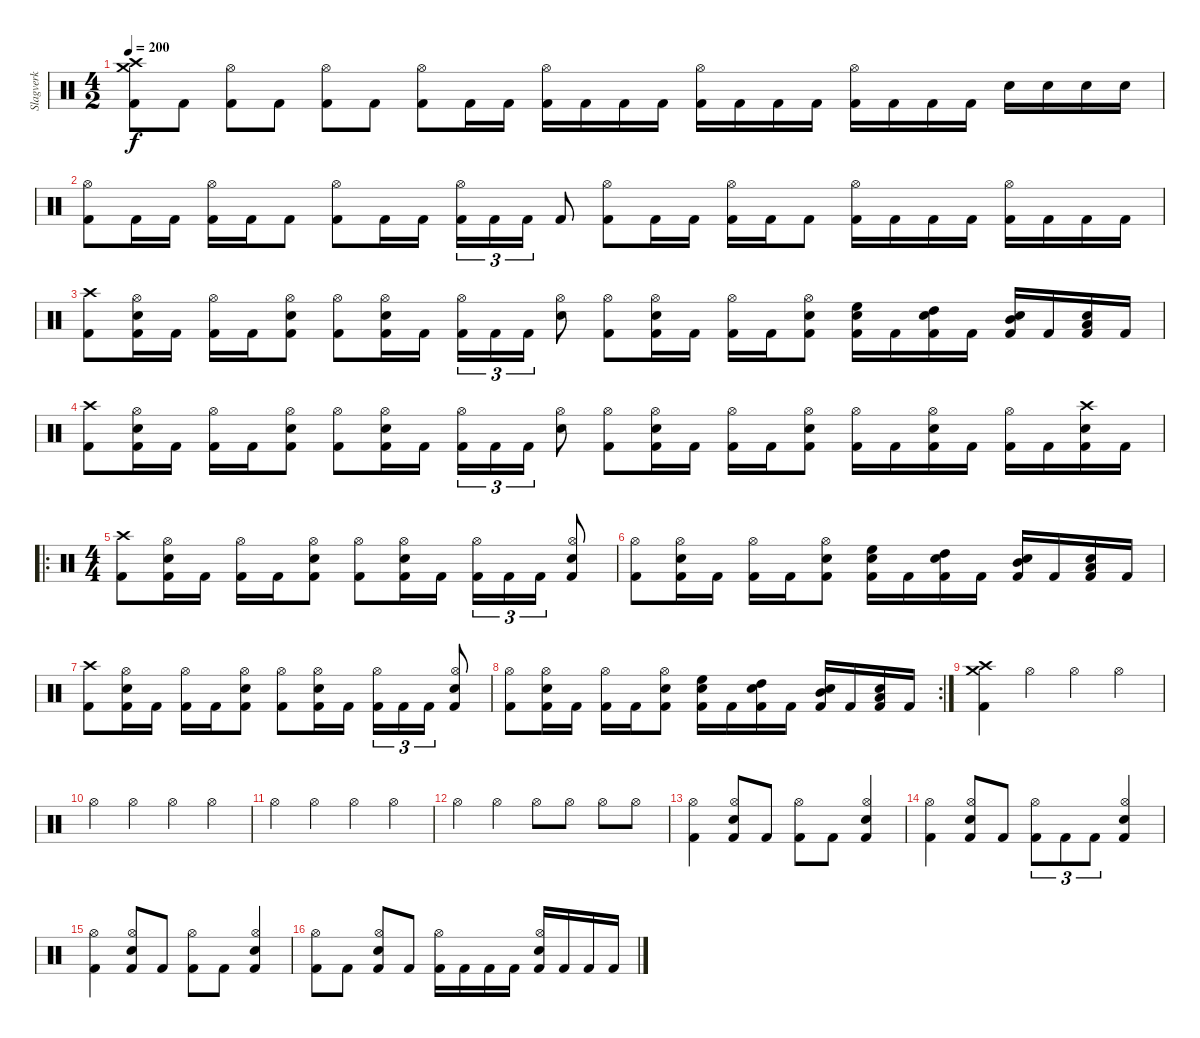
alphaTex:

\track ("Slagverk" "Slagverk") {instrument percussion}
\staff {score}
\articulation defaults
\ts (4 2)
\tempo 200
\clef neutral
\ks c
("Kick (hit) 2" "Crash high (hit)" "Crash medium (hit)").8{dy f} "Kick (hit) 2".8 ("Kick (hit) 2" "Hi-Hat (open)").8 "Kick (hit) 2".8 ("Kick (hit) 2" "Hi-Hat (open)").8 "Kick (hit) 2".8 ("Kick (hit) 2" "Hi-Hat (open)").8 "Kick (hit) 2".16 "Kick (hit) 2".16 ("Kick (hit) 2" "Hi-Hat (open)").16 "Kick (hit) 2".16 "Kick (hit) 2".16 "Kick (hit) 2".16 ("Kick (hit) 2" "Hi-Hat (open)").16 "Kick (hit) 2".16 "Kick (hit) 2".16 "Kick (hit) 2".16 ("Kick (hit) 2" "Hi-Hat (open)").16 "Kick (hit) 2".16 "Kick (hit) 2".16 "Kick (hit) 2".16 "Electric Snare (hit)".16 "Electric Snare (hit)".16 "Electric Snare (hit)".16 "Electric Snare (hit)".16 |
("Kick (hit) 2" "Hi-Hat (open)").8 "Kick (hit) 2".16 "Kick (hit) 2".16 ("Kick (hit) 2" "Hi-Hat (open)").16 "Kick (hit) 2".16 "Kick (hit) 2".8 ("Kick (hit) 2" "Hi-Hat (open)").8 "Kick (hit) 2".16 "Kick (hit) 2".16 ("Kick (hit) 2" "Hi-Hat (open)").16{tu (3 2)} "Kick (hit) 2".16{tu (3 2)} "Kick (hit) 2".16{tu (3 2)} "Kick (hit) 2".8 ("Kick (hit) 2" "Hi-Hat (open)").8 "Kick (hit) 2".16 "Kick (hit) 2".16 ("Kick (hit) 2" "Hi-Hat (open)").16 "Kick (hit) 2".16 "Kick (hit) 2".8 ("Kick (hit) 2" "Hi-Hat (open)").16 "Kick (hit) 2".16 "Kick (hit) 2".16 "Kick (hit) 2".16 ("Kick (hit) 2" "Hi-Hat (open)").16 "Kick (hit) 2".16 "Kick (hit) 2".16 "Kick (hit) 2".16 |
("Kick (hit) 2" "Crash high (hit)").8 ("Kick (hit) 2" "Electric Snare (hit)" "Hi-Hat (open)").16 "Kick (hit) 2".16 ("Kick (hit) 2" "Hi-Hat (open)").16 "Kick (hit) 2".16 ("Kick (hit) 2" "Electric Snare (hit)" "Hi-Hat (open)").8 ("Kick (hit) 2" "Hi-Hat (open)").8 ("Kick (hit) 2" "Electric Snare (hit)" "Hi-Hat (open)").16 "Kick (hit) 2".16 ("Kick (hit) 2" "Hi-Hat (open)").16{tu (3 2)} "Kick (hit) 2".16{tu (3 2)} "Kick (hit) 2".16{tu (3 2)} ("Electric Snare (hit)" "Hi-Hat (open)").8 ("Kick (hit) 2" "Hi-Hat (open)").8 ("Kick (hit) 2" "Electric Snare (hit)" "Hi-Hat (open)").16 "Kick (hit) 2".16 ("Kick (hit) 2" "Hi-Hat (open)").16 "Kick (hit) 2".16 ("Kick (hit) 2" "Electric Snare (hit)" "Hi-Hat (open)").8 ("Kick (hit) 2" "Electric Snare (hit)" "High Floor Tom (hit)").16 "Kick (hit) 2".16 ("Kick (hit) 2" "Electric Snare (hit)" "High Tom (hit)").16 "Kick (hit) 2".16 ("Kick (hit) 2" "Electric Snare (hit)" "Mid Tom (hit)").16 "Kick (hit) 2".16 ("Kick (hit) 2" "Electric Snare (hit)" "Low Tom (hit)").16 "Kick (hit) 2".16 |
("Kick (hit) 2" "Crash high (hit)").8 ("Kick (hit) 2" "Electric Snare (hit)" "Hi-Hat (open)").16 "Kick (hit) 2".16 ("Kick (hit) 2" "Hi-Hat (open)").16 "Kick (hit) 2".16 ("Kick (hit) 2" "Electric Snare (hit)" "Hi-Hat (open)").8 ("Kick (hit) 2" "Hi-Hat (open)").8 ("Kick (hit) 2" "Electric Snare (hit)" "Hi-Hat (open)").16 "Kick (hit) 2".16 ("Kick (hit) 2" "Hi-Hat (open)").16{tu (3 2)} "Kick (hit) 2".16{tu (3 2)} "Kick (hit) 2".16{tu (3 2)} ("Electric Snare (hit)" "Hi-Hat (open)").8 ("Kick (hit) 2" "Hi-Hat (open)").8 ("Kick (hit) 2" "Electric Snare (hit)" "Hi-Hat (open)").16 "Kick (hit) 2".16 ("Kick (hit) 2" "Hi-Hat (open)").16 "Kick (hit) 2".16 ("Kick (hit) 2" "Electric Snare (hit)" "Hi-Hat (open)").8 ("Kick (hit) 2" "Hi-Hat (open)").16 "Kick (hit) 2".16 ("Kick (hit) 2" "Electric Snare (hit)" "Hi-Hat (open)").16 "Kick (hit) 2".16 ("Kick (hit) 2" "Hi-Hat (open)").16 "Kick (hit) 2".16 ("Kick (hit) 2" "Electric Snare (hit)" "Crash high (hit)").16 "Kick (hit) 2".16 |
\ro
\ts (4 4)
("Kick (hit) 2" "Crash high (hit)").8 ("Kick (hit) 2" "Electric Snare (hit)" "Hi-Hat (open)").16 "Kick (hit) 2".16 ("Kick (hit) 2" "Hi-Hat (open)").16 "Kick (hit) 2".16 ("Kick (hit) 2" "Electric Snare (hit)" "Hi-Hat (open)").8 ("Kick (hit) 2" "Hi-Hat (open)").8 ("Kick (hit) 2" "Electric Snare (hit)" "Hi-Hat (open)").16 "Kick (hit) 2".16 ("Kick (hit) 2" "Hi-Hat (open)").16{tu (3 2)} "Kick (hit) 2".16{tu (3 2)} "Kick (hit) 2".16{tu (3 2)} ("Kick (hit) 2" "Electric Snare (hit)" "Hi-Hat (open)").8 |
("Kick (hit) 2" "Hi-Hat (open)").8 ("Kick (hit) 2" "Electric Snare (hit)" "Hi-Hat (open)").16 "Kick (hit) 2".16 ("Kick (hit) 2" "Hi-Hat (open)").16 "Kick (hit) 2".16 ("Kick (hit) 2" "Electric Snare (hit)" "Hi-Hat (open)").8 ("Kick (hit) 2" "Electric Snare (hit)" "High Floor Tom (hit)").16 "Kick (hit) 2".16 ("Kick (hit) 2" "Electric Snare (hit)" "High Tom (hit)").16 "Kick (hit) 2".16 ("Kick (hit) 2" "Electric Snare (hit)" "Mid Tom (hit)").16 "Kick (hit) 2".16 ("Kick (hit) 2" "Electric Snare (hit)" "Low Tom (hit)").16 "Kick (hit) 2".16 |
("Kick (hit) 2" "Crash high (hit)").8 ("Kick (hit) 2" "Electric Snare (hit)" "Hi-Hat (open)").16 "Kick (hit) 2".16 ("Kick (hit) 2" "Hi-Hat (open)").16 "Kick (hit) 2".16 ("Kick (hit) 2" "Electric Snare (hit)" "Hi-Hat (open)").8 ("Kick (hit) 2" "Hi-Hat (open)").8 ("Kick (hit) 2" "Electric Snare (hit)" "Hi-Hat (open)").16 "Kick (hit) 2".16 ("Kick (hit) 2" "Hi-Hat (open)").16{tu (3 2)} "Kick (hit) 2".16{tu (3 2)} "Kick (hit) 2".16{tu (3 2)} ("Kick (hit) 2" "Electric Snare (hit)" "Hi-Hat (open)").8 |
\rc 2
("Kick (hit) 2" "Hi-Hat (open)").8 ("Kick (hit) 2" "Electric Snare (hit)" "Hi-Hat (open)").16 "Kick (hit) 2".16 ("Kick (hit) 2" "Hi-Hat (open)").16 "Kick (hit) 2".16 ("Kick (hit) 2" "Electric Snare (hit)" "Hi-Hat (open)").8 ("Kick (hit) 2" "Electric Snare (hit)" "High Floor Tom (hit)").16 "Kick (hit) 2".16 ("Kick (hit) 2" "Electric Snare (hit)" "High Tom (hit)").16 "Kick (hit) 2".16 ("Kick (hit) 2" "Electric Snare (hit)" "Mid Tom (hit)").16 "Kick (hit) 2".16 ("Kick (hit) 2" "Electric Snare (hit)" "Low Tom (hit)").16 "Kick (hit) 2".16 |
("Kick (hit) 2" "Crash high (hit)" "Crash medium (hit)").4 "Hi-Hat (open)".4 "Hi-Hat (open)".4 "Hi-Hat (open)".4 |
"Hi-Hat (open)".4 "Hi-Hat (open)".4 "Hi-Hat (open)".4 "Hi-Hat (open)".4 |
"Hi-Hat (open)".4 "Hi-Hat (open)".4 "Hi-Hat (open)".4 "Hi-Hat (open)".4 |
"Hi-Hat (open)".4 "Hi-Hat (open)".4 "Hi-Hat (open)".8 "Hi-Hat (open)".8 "Hi-Hat (open)".8 "Hi-Hat (open)".8 |
("Kick (hit) 2" "Hi-Hat (open)").4 ("Kick (hit) 2" "Electric Snare (hit)" "Hi-Hat (open)").8 "Kick (hit) 2".8 ("Kick (hit) 2" "Hi-Hat (open)").8 "Kick (hit) 2".8 ("Kick (hit) 2" "Electric Snare (hit)" "Hi-Hat (open)").4 |
("Kick (hit) 2" "Hi-Hat (open)").4 ("Kick (hit) 2" "Electric Snare (hit)" "Hi-Hat (open)").8 "Kick (hit) 2".8 ("Kick (hit) 2" "Hi-Hat (open)").8{tu (3 2)} "Kick (hit) 2".8{tu (3 2)} "Kick (hit) 2".8{tu (3 2)} ("Kick (hit) 2" "Electric Snare (hit)" "Hi-Hat (open)").4 |
("Kick (hit) 2" "Hi-Hat (open)").4 ("Kick (hit) 2" "Electric Snare (hit)" "Hi-Hat (open)").8 "Kick (hit) 2".8 ("Kick (hit) 2" "Hi-Hat (open)").8 "Kick (hit) 2".8 ("Kick (hit) 2" "Electric Snare (hit)" "Hi-Hat (open)").4 |
("Kick (hit) 2" "Hi-Hat (open)").8 "Kick (hit) 2".8 ("Kick (hit) 2" "Electric Snare (hit)" "Hi-Hat (open)").8 "Kick (hit) 2".8 ("Kick (hit) 2" "Hi-Hat (open)").16 "Kick (hit) 2".16 "Kick (hit) 2".16 "Kick (hit) 2".16 ("Kick (hit) 2" "Electric Snare (hit)" "Hi-Hat (open)").16 "Kick (hit) 2".16 "Kick (hit) 2".16 "Kick (hit) 2".16
